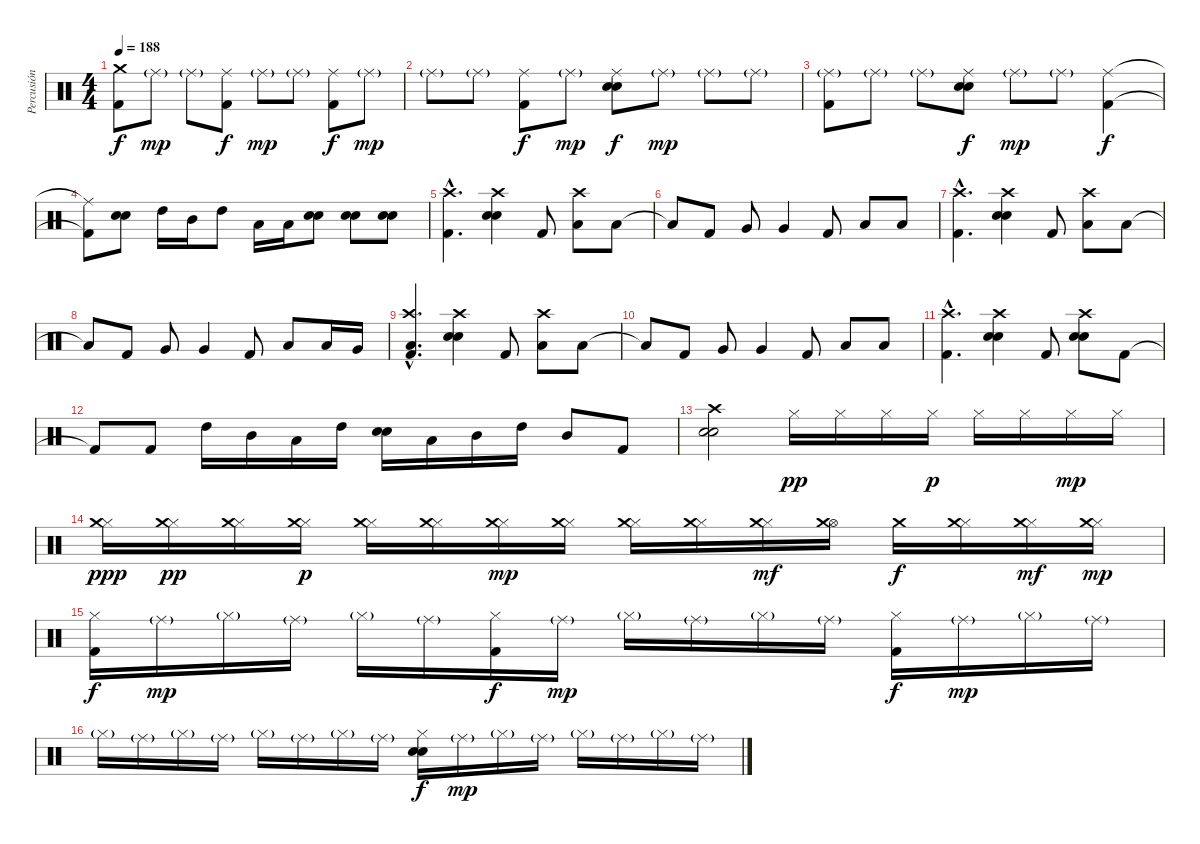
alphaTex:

\track ("Percusión" "Percusión") {instrument percussion}
\staff {score}
\articulation defaults
\ts (4 4)
\tempo 188
\clef neutral
\ks c
("Crash medium (hit)" "Kick (hit) 2").8{dy f} "Ride (middle)"{g}.8{dy mp} "Ride (middle)"{g}.8 ("Ride (middle)" "Kick (hit) 2").8{dy f} "Ride (middle)"{g}.8{dy mp} "Ride (middle)"{g}.8 ("Ride (middle)" "Kick (hit) 2").8{dy f} "Ride (middle)"{g}.8{dy mp} |
"Ride (middle)"{g}.8 "Ride (middle)"{g}.8 ("Ride (middle)" "Kick (hit) 2").8{dy f} "Ride (middle)"{g}.8{dy mp} ("Ride (middle)" "Electric Snare (hit)" "Snare (hit) 2").8{dy f} "Ride (middle)"{g}.8{dy mp} "Ride (middle)"{g}.8 "Ride (middle)"{g}.8 |
("Ride (middle)"{g} "Kick (hit) 2").8 "Ride (middle)"{g}.8 "Ride (middle)"{g}.8 ("Ride (middle)" "Electric Snare (hit)" "Snare (hit) 2").8{dy f} "Ride (middle)"{g}.8{dy mp} "Ride (middle)"{g}.8 ("Ride (middle)" "Kick (hit) 2").4{dy f} |
("Ride (middle)"{t} "Kick (hit) 2"{t}).8 ("Electric Snare (hit)" "Snare (hit) 2").8 "High Tom (hit)".16 "Mid Tom (hit)".16 "High Tom (hit)".8 "Low Tom (hit)".16 "Low Tom (hit)".16 ("Electric Snare (hit)" "Snare (hit) 2").8 ("Electric Snare (hit)" "Snare (hit) 2").8 ("Electric Snare (hit)" "Snare (hit) 2").8 |
("Crash high (hit)"{hac} "Kick (hit) 2"{hac}).4{d} ("Crash high (hit)" "Electric Snare (hit)" "Snare (hit) 2").4 "Kick (hit) 2".8 ("Crash high (hit)" "Low Tom (hit)").8 "Low Tom (hit)".8 |
"Low Tom (hit)"{t}.8 "Kick (hit) 2".8 "Very Low Tom (hit)".8 "Very Low Tom (hit)".4 "Kick (hit) 2".8 "Low Floor Tom (hit)".8 "Low Floor Tom (hit)".8 |
("Crash high (hit)"{hac} "Kick (hit) 2"{hac}).4{d} ("Crash high (hit)" "Electric Snare (hit)" "Snare (hit) 2").4 "Kick (hit) 2".8 ("Crash high (hit)" "Low Tom (hit)").8 "Low Tom (hit)".8 |
"Low Tom (hit)"{t}.8 "Kick (hit) 2".8 "Very Low Tom (hit)".8 "Very Low Tom (hit)".4 "Kick (hit) 2".8 "Low Floor Tom (hit)".8 "Low Floor Tom (hit)".16 "Very Low Tom (hit)".16 |
("Crash high (hit)"{hac} "Low Floor Tom (hit)"{hac} "Kick (hit) 2"{hac}).4{d} ("Crash high (hit)" "Electric Snare (hit)" "Snare (hit) 2").4 "Kick (hit) 2".8 ("Crash high (hit)" "Low Tom (hit)").8 "Low Tom (hit)".8 |
"Low Tom (hit)"{t}.8 "Kick (hit) 2".8 "Very Low Tom (hit)".8 "Very Low Tom (hit)".4 "Kick (hit) 2".8 "Low Floor Tom (hit)".8 "Low Floor Tom (hit)".8 |
("Crash high (hit)"{hac} "Kick (hit) 2"{hac}).4{d} ("Crash high (hit)" "Electric Snare (hit)" "Snare (hit) 2").4 "Kick (hit) 2".8 ("Crash high (hit)" "Electric Snare (hit)" "Snare (hit) 2").8 "Kick (hit) 2".8 |
"Kick (hit) 2"{t}.8 "Kick (hit) 2".8 "High Tom (hit)".16 "Mid Tom (hit)".16 "Low Tom (hit)".16 "High Tom (hit)".16 ("Electric Snare (hit)" "Snare (hit) 2").16 "Low Tom (hit)".16 "Mid Tom (hit)".16 "High Tom (hit)".16 "Mid Tom (hit)".8 "Kick (hit) 2".8 |
("Crash high (hit)" "Electric Snare (hit)" "Snare (hit) 2").2 "Hi-Hat (closed)".16{dy pp} "Hi-Hat (closed)".16 "Hi-Hat (closed)".16 "Hi-Hat (closed)".16{dy p} "Hi-Hat (closed)".16 "Hi-Hat (closed)".16 "Hi-Hat (closed)".16{dy mp} "Hi-Hat (closed)".16 |
("Hi-Hat (closed)" "Crash medium (hit)").16{dy ppp} ("Hi-Hat (closed)" "Crash medium (hit)").16{dy pp} ("Hi-Hat (closed)" "Crash medium (hit)").16 ("Hi-Hat (closed)" "Crash medium (hit)").16{dy p} ("Hi-Hat (closed)" "Crash medium (hit)").16 ("Hi-Hat (closed)" "Crash medium (hit)").16 ("Hi-Hat (closed)" "Crash medium (hit)").16{dy mp} ("Hi-Hat (closed)" "Crash medium (hit)").16 ("Hi-Hat (closed)" "Crash medium (hit)").16 ("Hi-Hat (closed)" "Crash medium (hit)").16 ("Hi-Hat (closed)" "Crash medium (hit)").16{dy mf} ("Hi-Hat (open)" "Crash medium (hit)").16 "Crash medium (hit)".16{dy f} ("Hi-Hat (closed)" "Crash medium (hit)").16 ("Hi-Hat (closed)" "Crash medium (hit)").16{dy mf} ("Hi-Hat (closed)" "Crash medium (hit)").16{dy mp} |
("Hi-Hat (closed)" "Kick (hit) 2").16{dy f volume 10} "Ride (middle)"{g}.16{dy mp} "Hi-Hat (closed)"{g}.16 "Ride (middle)"{g}.16 "Hi-Hat (closed)"{g}.16 "Ride (middle)"{g}.16 ("Hi-Hat (closed)" "Kick (hit) 2").16{dy f} "Ride (middle)"{g}.16{dy mp} "Hi-Hat (closed)"{g}.16 "Ride (middle)"{g}.16 "Hi-Hat (closed)"{g}.16 "Ride (middle)"{g}.16 ("Hi-Hat (closed)" "Kick (hit) 2").16{dy f} "Ride (middle)"{g}.16{dy mp} "Hi-Hat (closed)"{g}.16 "Ride (middle)"{g}.16 |
"Hi-Hat (closed)"{g}.16 "Ride (middle)"{g}.16 "Hi-Hat (closed)"{g}.16 "Ride (middle)"{g}.16 "Hi-Hat (closed)"{g}.16 "Ride (middle)"{g}.16 "Hi-Hat (closed)"{g}.16 "Ride (middle)"{g}.16 ("Hi-Hat (closed)" "Electric Snare (hit)" "Snare (hit) 2").16{dy f} "Ride (middle)"{g}.16{dy mp} "Hi-Hat (closed)"{g}.16 "Ride (middle)"{g}.16 "Hi-Hat (closed)"{g}.16 "Ride (middle)"{g}.16 "Hi-Hat (closed)"{g}.16 "Ride (middle)"{g}.16
